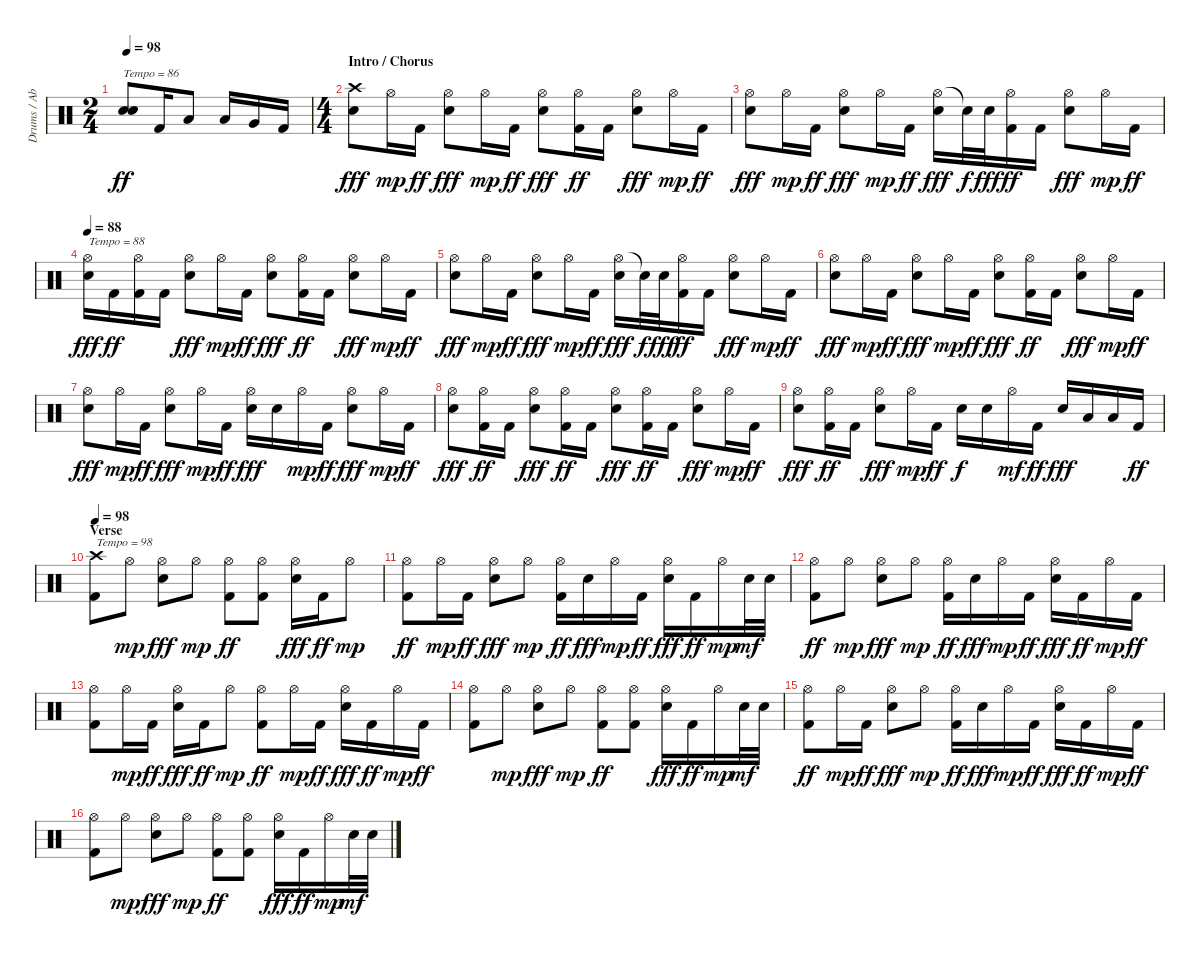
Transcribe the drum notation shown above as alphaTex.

\track ("Drums / Abe Cunningham" "Drums / Ab") {instrument percussion}
\staff {score}
\articulation defaults
\ts (2 4)
\tempo 98
\tempo 86
\tempo 98
\clef neutral
\ks c
("Electric Snare (hit)" "Electric Snare (hit)").8{bd 120 txt "Tempo = 86" dy ff} "Kick (hit) 2".16 "Low Tom (hit)".8 "Low Tom (hit)".16 "Very Low Tom (hit)".16 "Kick (hit) 2".16 |
\ts (4 4)
\section ("" "Intro / Chorus")
("Crash high (hit)" "Electric Snare (hit)").8{dy fff} "Hi-Hat (open)".16{dy mp} "Kick (hit) 2".16{dy ff} ("Hi-Hat (open)" "Electric Snare (hit)").8{dy fff} "Hi-Hat (open)".16{dy mp} "Kick (hit) 2".16{dy ff} ("Hi-Hat (open)" "Electric Snare (hit)").8{dy fff} ("Hi-Hat (open)" "Kick (hit) 2").16{dy ff} "Kick (hit) 2".16 ("Hi-Hat (open)" "Electric Snare (hit)").8{dy fff} "Hi-Hat (open)".16{dy mp} "Kick (hit) 2".16{dy ff} |
("Hi-Hat (open)" "Electric Snare (hit)").8{dy fff} "Hi-Hat (open)".16{dy mp} "Kick (hit) 2".16{dy ff} ("Hi-Hat (open)" "Electric Snare (hit)").8{dy fff} "Hi-Hat (open)".16{dy mp} "Kick (hit) 2".16{dy ff} ("Hi-Hat (open)" "Electric Snare (hit)").16{dy fff} "Snare (hit)"{t}.32{dy f} "Electric Snare (hit)".32{dy fff} ("Hi-Hat (open)" "Kick (hit) 2").16{dy ff} "Kick (hit) 2".16 ("Hi-Hat (open)" "Electric Snare (hit)").8{dy fff} "Hi-Hat (open)".16{dy mp} "Kick (hit) 2".16{dy ff} |
\tempo 88
("Hi-Hat (open)" "Electric Snare (hit)").16{txt "Tempo = 88" dy fff} "Kick (hit) 2".16{dy ff} ("Hi-Hat (open)" "Kick (hit) 2").16 "Kick (hit) 2".16 ("Hi-Hat (open)" "Electric Snare (hit)").8{dy fff} "Hi-Hat (open)".16{dy mp} "Kick (hit) 2".16{dy ff} ("Hi-Hat (open)" "Electric Snare (hit)").8{dy fff} ("Hi-Hat (open)" "Kick (hit) 2").16{dy ff} "Kick (hit) 2".16 ("Hi-Hat (open)" "Electric Snare (hit)").8{dy fff} "Hi-Hat (open)".16{dy mp} "Kick (hit) 2".16{dy ff} |
("Hi-Hat (open)" "Electric Snare (hit)").8{dy fff} "Hi-Hat (open)".16{dy mp} "Kick (hit) 2".16{dy ff} ("Hi-Hat (open)" "Electric Snare (hit)").8{dy fff} "Hi-Hat (open)".16{dy mp} "Kick (hit) 2".16{dy ff} ("Hi-Hat (open)" "Electric Snare (hit)").16{dy fff} "Snare (hit)"{t}.32{dy f} "Electric Snare (hit)".32{dy fff} ("Hi-Hat (open)" "Kick (hit) 2").16{dy ff} "Kick (hit) 2".16 ("Hi-Hat (open)" "Electric Snare (hit)").8{dy fff} "Hi-Hat (open)".16{dy mp} "Kick (hit) 2".16{dy ff} |
("Hi-Hat (open)" "Electric Snare (hit)").8{dy fff} "Hi-Hat (open)".16{dy mp} "Kick (hit) 2".16{dy ff} ("Hi-Hat (open)" "Electric Snare (hit)").8{dy fff} "Hi-Hat (open)".16{dy mp} "Kick (hit) 2".16{dy ff} ("Hi-Hat (open)" "Electric Snare (hit)").8{dy fff} ("Hi-Hat (open)" "Kick (hit) 2").16{dy ff} "Kick (hit) 2".16 ("Hi-Hat (open)" "Electric Snare (hit)").8{dy fff} "Hi-Hat (open)".16{dy mp} "Kick (hit) 2".16{dy ff} |
("Hi-Hat (open)" "Electric Snare (hit)").8{dy fff} "Hi-Hat (open)".16{dy mp} "Kick (hit) 2".16{dy ff} ("Hi-Hat (open)" "Electric Snare (hit)").8{dy fff} "Hi-Hat (open)".16{dy mp} "Kick (hit) 2".16{dy ff} ("Hi-Hat (open)" "Electric Snare (hit)").16{dy fff} "Electric Snare (hit)".16 "Hi-Hat (open)".16{dy mp} "Kick (hit) 2".16{dy ff} ("Hi-Hat (open)" "Electric Snare (hit)").8{dy fff} "Hi-Hat (open)".16{dy mp} "Kick (hit) 2".16{dy ff} |
("Hi-Hat (open)" "Electric Snare (hit)").8{dy fff} ("Hi-Hat (open)" "Kick (hit) 2").16{dy ff} "Kick (hit) 2".16 ("Hi-Hat (open)" "Electric Snare (hit)").8{dy fff} ("Hi-Hat (open)" "Kick (hit) 2").16{dy ff} "Kick (hit) 2".16 ("Hi-Hat (open)" "Electric Snare (hit)").8{dy fff} ("Hi-Hat (open)" "Kick (hit) 2").16{dy ff} "Kick (hit) 2".16 ("Hi-Hat (open)" "Electric Snare (hit)").8{dy fff} "Hi-Hat (open)".16{dy mp} "Kick (hit) 2".16{dy ff} |
("Hi-Hat (open)" "Electric Snare (hit)").8{dy fff} ("Hi-Hat (open)" "Kick (hit) 2").16{dy ff} "Kick (hit) 2".16 ("Hi-Hat (open)" "Electric Snare (hit)").8{dy fff} "Hi-Hat (open)".16{dy mp} "Kick (hit) 2".16{dy ff} "Electric Snare (hit)".16{dy f} "Electric Snare (hit)".16 "Hi-Hat (open)".16{dy mf} "Kick (hit) 2".16{dy ff} "Electric Snare (hit)".16{dy fff} "Low Tom (hit)".16 "Low Tom (hit)".16 "Kick (hit) 2".16{dy ff} |
\section ("" "Verse")
\tempo 98
("Crash high (hit)" "Kick (hit) 2").8{txt "Tempo = 98"} "Hi-Hat (open)".8{dy mp} ("Hi-Hat (open)" "Electric Snare (hit)").8{dy fff} "Hi-Hat (open)".8{dy mp} ("Hi-Hat (open)" "Kick (hit) 2").8{dy ff} ("Hi-Hat (open)" "Kick (hit) 2").8 ("Hi-Hat (open)" "Electric Snare (hit)").16{dy fff} "Kick (hit) 2".16{dy ff} "Hi-Hat (open)".8{dy mp} |
("Hi-Hat (open)" "Kick (hit) 2").8{dy ff} "Hi-Hat (open)".16{dy mp} "Kick (hit) 2".16{dy ff} ("Hi-Hat (open)" "Electric Snare (hit)").8{dy fff} "Hi-Hat (open)".8{dy mp} ("Hi-Hat (open)" "Kick (hit) 2").16{dy ff} "Electric Snare (hit)".16{dy fff} "Hi-Hat (open)".16{dy mp} "Kick (hit) 2".16{dy ff} ("Hi-Hat (open)" "Electric Snare (hit)").16{dy fff} "Kick (hit) 2".16{dy ff} "Hi-Hat (open)".16{dy mp} "Electric Snare (hit)".32{dy mf} "Electric Snare (hit)".32 |
("Hi-Hat (open)" "Kick (hit) 2").8{dy ff} "Hi-Hat (open)".8{dy mp} ("Hi-Hat (open)" "Electric Snare (hit)").8{dy fff} "Hi-Hat (open)".8{dy mp} ("Hi-Hat (open)" "Kick (hit) 2").16{dy ff} "Electric Snare (hit)".16{dy fff} "Hi-Hat (open)".16{dy mp} "Kick (hit) 2".16{dy ff} ("Hi-Hat (open)" "Electric Snare (hit)").16{dy fff} "Kick (hit) 2".16{dy ff} "Hi-Hat (open)".16{dy mp} "Kick (hit) 2".16{dy ff} |
("Hi-Hat (open)" "Kick (hit) 2").8 "Hi-Hat (open)".16{dy mp} "Kick (hit) 2".16{dy ff} ("Hi-Hat (open)" "Electric Snare (hit)").16{dy fff} "Kick (hit) 2".16{dy ff} "Hi-Hat (open)".8{dy mp} ("Hi-Hat (open)" "Kick (hit) 2").8{dy ff} "Hi-Hat (open)".16{dy mp} "Kick (hit) 2".16{dy ff} ("Hi-Hat (open)" "Electric Snare (hit)").16{dy fff} "Kick (hit) 2".16{dy ff} "Hi-Hat (open)".16{dy mp} "Kick (hit) 2".16{dy ff} |
("Hi-Hat (open)" "Kick (hit) 2").8 "Hi-Hat (open)".8{dy mp} ("Hi-Hat (open)" "Electric Snare (hit)").8{dy fff} "Hi-Hat (open)".8{dy mp} ("Hi-Hat (open)" "Kick (hit) 2").8{dy ff} ("Hi-Hat (open)" "Kick (hit) 2").8 ("Hi-Hat (open)" "Electric Snare (hit)").16{dy fff} "Kick (hit) 2".16{dy ff} "Hi-Hat (open)".16{dy mp} "Electric Snare (hit)".32{dy mf} "Electric Snare (hit)".32 |
("Hi-Hat (open)" "Kick (hit) 2").8{dy ff} "Hi-Hat (open)".16{dy mp} "Kick (hit) 2".16{dy ff} ("Hi-Hat (open)" "Electric Snare (hit)").8{dy fff} "Hi-Hat (open)".8{dy mp} ("Hi-Hat (open)" "Kick (hit) 2").16{dy ff} "Electric Snare (hit)".16{dy fff} "Hi-Hat (open)".16{dy mp} "Kick (hit) 2".16{dy ff} ("Hi-Hat (open)" "Electric Snare (hit)").16{dy fff} "Kick (hit) 2".16{dy ff} "Hi-Hat (open)".16{dy mp} "Kick (hit) 2".16{dy ff} |
("Hi-Hat (open)" "Kick (hit) 2").8 "Hi-Hat (open)".8{dy mp} ("Hi-Hat (open)" "Electric Snare (hit)").8{dy fff} "Hi-Hat (open)".8{dy mp} ("Hi-Hat (open)" "Kick (hit) 2").8{dy ff} ("Hi-Hat (open)" "Kick (hit) 2").8 ("Hi-Hat (open)" "Electric Snare (hit)").16{dy fff} "Kick (hit) 2".16{dy ff} "Hi-Hat (open)".16{dy mp} "Electric Snare (hit)".32{dy mf} "Electric Snare (hit)".32
